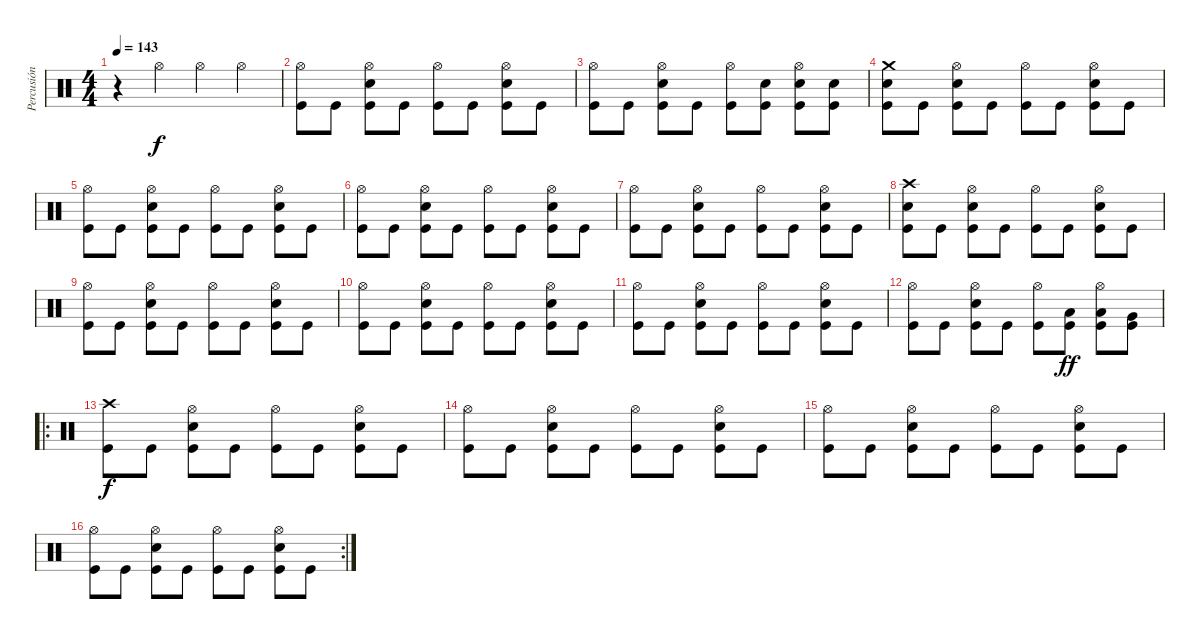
\track ("Percusión" "Percusión") {instrument percussion}
\staff {score}
\articulation defaults
\ts (4 4)
\tempo 143
\clef neutral
\ks c
r.4{dy f} "Hi-Hat (open)".4 "Hi-Hat (open)".4 "Hi-Hat (open)".4 |
("Hi-Hat (open)" "Kick (hit)").8 "Kick (hit)".8 ("Hi-Hat (open)" "Snare (hit) 2" "Kick (hit)").8 "Kick (hit)".8 ("Hi-Hat (open)" "Kick (hit)").8 "Kick (hit)".8 ("Hi-Hat (open)" "Snare (hit) 2" "Kick (hit)").8 "Kick (hit)".8 |
("Hi-Hat (open)" "Kick (hit)").8 "Kick (hit)".8 ("Hi-Hat (open)" "Snare (hit) 2" "Kick (hit)").8 "Kick (hit)".8 ("Hi-Hat (open)" "Kick (hit)").8 ("Snare (hit) 2" "Kick (hit)").8 ("Hi-Hat (open)" "Snare (hit) 2" "Kick (hit)").8 ("Snare (hit) 2" "Kick (hit)").8 |
("Crash medium (hit)" "Snare (hit) 2" "Kick (hit)").8 "Kick (hit)".8 ("Hi-Hat (open)" "Snare (hit) 2" "Kick (hit)").8 "Kick (hit)".8 ("Hi-Hat (open)" "Kick (hit)").8 "Kick (hit)".8 ("Hi-Hat (open)" "Snare (hit) 2" "Kick (hit)").8 "Kick (hit)".8 |
("Hi-Hat (open)" "Kick (hit)").8 "Kick (hit)".8 ("Hi-Hat (open)" "Snare (hit) 2" "Kick (hit)").8 "Kick (hit)".8 ("Hi-Hat (open)" "Kick (hit)").8 "Kick (hit)".8 ("Hi-Hat (open)" "Snare (hit) 2" "Kick (hit)").8 "Kick (hit)".8 |
("Hi-Hat (open)" "Kick (hit)").8 "Kick (hit)".8 ("Hi-Hat (open)" "Snare (hit) 2" "Kick (hit)").8 "Kick (hit)".8 ("Hi-Hat (open)" "Kick (hit)").8 "Kick (hit)".8 ("Hi-Hat (open)" "Snare (hit) 2" "Kick (hit)").8 "Kick (hit)".8 |
("Hi-Hat (open)" "Kick (hit)").8 "Kick (hit)".8 ("Hi-Hat (open)" "Snare (hit) 2" "Kick (hit)").8 "Kick (hit)".8 ("Hi-Hat (open)" "Kick (hit)").8 "Kick (hit)".8 ("Hi-Hat (open)" "Snare (hit) 2" "Kick (hit)").8 "Kick (hit)".8 |
("Crash high (hit)" "Snare (hit) 2" "Kick (hit)").8 "Kick (hit)".8 ("Hi-Hat (open)" "Snare (hit) 2" "Kick (hit)").8 "Kick (hit)".8 ("Hi-Hat (open)" "Kick (hit)").8 "Kick (hit)".8 ("Hi-Hat (open)" "Snare (hit) 2" "Kick (hit)").8 "Kick (hit)".8 |
("Hi-Hat (open)" "Kick (hit)").8 "Kick (hit)".8 ("Hi-Hat (open)" "Snare (hit) 2" "Kick (hit)").8 "Kick (hit)".8 ("Hi-Hat (open)" "Kick (hit)").8 "Kick (hit)".8 ("Hi-Hat (open)" "Snare (hit) 2" "Kick (hit)").8 "Kick (hit)".8 |
("Hi-Hat (open)" "Kick (hit)").8 "Kick (hit)".8 ("Hi-Hat (open)" "Snare (hit) 2" "Kick (hit)").8 "Kick (hit)".8 ("Hi-Hat (open)" "Kick (hit)").8 "Kick (hit)".8 ("Hi-Hat (open)" "Snare (hit) 2" "Kick (hit)").8 "Kick (hit)".8 |
("Hi-Hat (open)" "Kick (hit)").8 "Kick (hit)".8 ("Hi-Hat (open)" "Snare (hit) 2" "Kick (hit)").8 "Kick (hit)".8 ("Hi-Hat (open)" "Kick (hit)").8 "Kick (hit)".8 ("Hi-Hat (open)" "Snare (hit) 2" "Kick (hit)").8 "Kick (hit)".8 |
("Hi-Hat (open)" "Kick (hit)").8 "Kick (hit)".8 ("Hi-Hat (open)" "Snare (hit) 2" "Kick (hit)").8 "Kick (hit)".8 ("Hi-Hat (open)" "Kick (hit)").8 ("Low Floor Tom (hit)" "Kick (hit)").8{dy ff} ("Hi-Hat (open)" "Low Floor Tom (hit)" "Kick (hit)").8 ("Very Low Tom (hit)" "Kick (hit)").8 |
\ro
("Crash high (hit)" "Kick (hit)").8{dy f} "Kick (hit)".8 ("Hi-Hat (open)" "Snare (hit) 2" "Kick (hit)").8 "Kick (hit)".8 ("Hi-Hat (open)" "Kick (hit)").8 "Kick (hit)".8 ("Hi-Hat (open)" "Snare (hit) 2" "Kick (hit)").8 "Kick (hit)".8 |
("Hi-Hat (open)" "Kick (hit)").8 "Kick (hit)".8 ("Hi-Hat (open)" "Snare (hit) 2" "Kick (hit)").8 "Kick (hit)".8 ("Hi-Hat (open)" "Kick (hit)").8 "Kick (hit)".8 ("Hi-Hat (open)" "Snare (hit) 2" "Kick (hit)").8 "Kick (hit)".8 |
("Hi-Hat (open)" "Kick (hit)").8 "Kick (hit)".8 ("Hi-Hat (open)" "Snare (hit) 2" "Kick (hit)").8 "Kick (hit)".8 ("Hi-Hat (open)" "Kick (hit)").8 "Kick (hit)".8 ("Hi-Hat (open)" "Snare (hit) 2" "Kick (hit)").8 "Kick (hit)".8 |
\rc 2
("Hi-Hat (open)" "Kick (hit)").8 "Kick (hit)".8 ("Hi-Hat (open)" "Snare (hit) 2" "Kick (hit)").8 "Kick (hit)".8 ("Hi-Hat (open)" "Kick (hit)").8 "Kick (hit)".8 ("Hi-Hat (open)" "Snare (hit) 2" "Kick (hit)").8 "Kick (hit)".8
